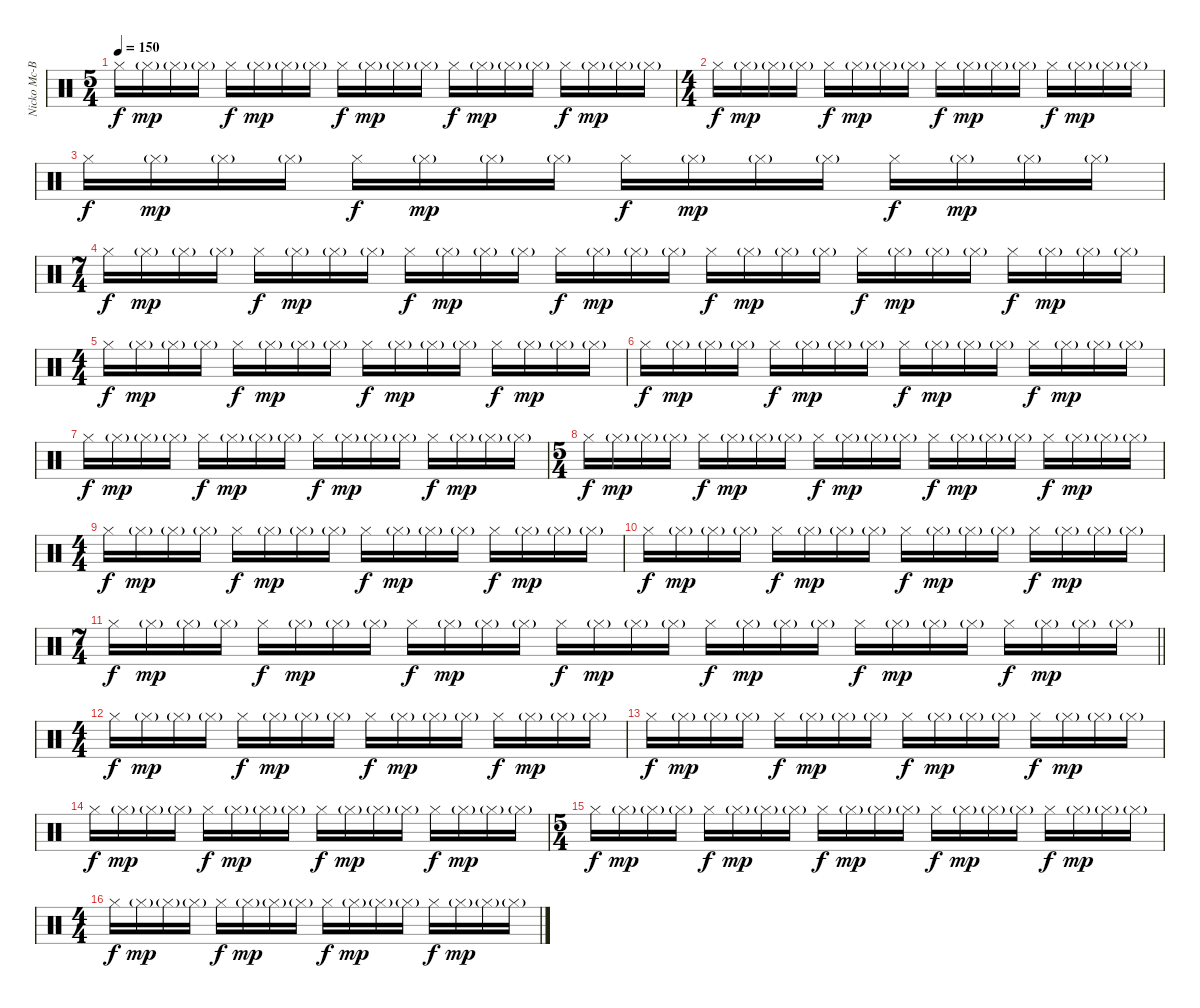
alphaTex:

\track ("Nicko Mc-Brain" "Nicko Mc-B") {instrument percussion}
\staff {score}
\articulation defaults
\ts (5 4)
\tempo 150
\clef neutral
\ks c "Hi-Hat (closed)".16{dy f} "Hi-Hat (closed)"{g}.16{dy mp} "Hi-Hat (closed)"{g}.16 "Hi-Hat (closed)"{g}.16 "Hi-Hat (closed)".16{dy f} "Hi-Hat (closed)"{g}.16{dy mp} "Hi-Hat (closed)"{g}.16 "Hi-Hat (closed)"{g}.16 "Hi-Hat (closed)".16{dy f} "Hi-Hat (closed)"{g}.16{dy mp} "Hi-Hat (closed)"{g}.16 "Hi-Hat (closed)"{g}.16 "Hi-Hat (closed)".16{dy f} "Hi-Hat (closed)"{g}.16{dy mp} "Hi-Hat (closed)"{g}.16 "Hi-Hat (closed)"{g}.16 "Hi-Hat (closed)".16{dy f} "Hi-Hat (closed)"{g}.16{dy mp} "Hi-Hat (closed)"{g}.16 "Hi-Hat (closed)"{g}.16
|
\ts (4 4)
"Hi-Hat (closed)".16{dy f} "Hi-Hat (closed)"{g}.16{dy mp} "Hi-Hat (closed)"{g}.16 "Hi-Hat (closed)"{g}.16 "Hi-Hat (closed)".16{dy f} "Hi-Hat (closed)"{g}.16{dy mp} "Hi-Hat (closed)"{g}.16 "Hi-Hat (closed)"{g}.16 "Hi-Hat (closed)".16{dy f} "Hi-Hat (closed)"{g}.16{dy mp} "Hi-Hat (closed)"{g}.16 "Hi-Hat (closed)"{g}.16 "Hi-Hat (closed)".16{dy f} "Hi-Hat (closed)"{g}.16{dy mp} "Hi-Hat (closed)"{g}.16 "Hi-Hat (closed)"{g}.16 |
"Hi-Hat (closed)".16{dy f} "Hi-Hat (closed)"{g}.16{dy mp} "Hi-Hat (closed)"{g}.16 "Hi-Hat (closed)"{g}.16 "Hi-Hat (closed)".16{dy f} "Hi-Hat (closed)"{g}.16{dy mp} "Hi-Hat (closed)"{g}.16 "Hi-Hat (closed)"{g}.16 "Hi-Hat (closed)".16{dy f} "Hi-Hat (closed)"{g}.16{dy mp} "Hi-Hat (closed)"{g}.16 "Hi-Hat (closed)"{g}.16 "Hi-Hat (closed)".16{dy f} "Hi-Hat (closed)"{g}.16{dy mp} "Hi-Hat (closed)"{g}.16 "Hi-Hat (closed)"{g}.16 |
\ts (7 4)
"Hi-Hat (closed)".16{dy f} "Hi-Hat (closed)"{g}.16{dy mp} "Hi-Hat (closed)"{g}.16 "Hi-Hat (closed)"{g}.16 "Hi-Hat (closed)".16{dy f} "Hi-Hat (closed)"{g}.16{dy mp} "Hi-Hat (closed)"{g}.16 "Hi-Hat (closed)"{g}.16 "Hi-Hat (closed)".16{dy f} "Hi-Hat (closed)"{g}.16{dy mp} "Hi-Hat (closed)"{g}.16 "Hi-Hat (closed)"{g}.16 "Hi-Hat (closed)".16{dy f} "Hi-Hat (closed)"{g}.16{dy mp} "Hi-Hat (closed)"{g}.16 "Hi-Hat (closed)"{g}.16 "Hi-Hat (closed)".16{dy f} "Hi-Hat (closed)"{g}.16{dy mp} "Hi-Hat (closed)"{g}.16 "Hi-Hat (closed)"{g}.16 "Hi-Hat (closed)".16{dy f} "Hi-Hat (closed)"{g}.16{dy mp} "Hi-Hat (closed)"{g}.16 "Hi-Hat (closed)"{g}.16 "Hi-Hat (closed)".16{dy f} "Hi-Hat (closed)"{g}.16{dy mp} "Hi-Hat (closed)"{g}.16 "Hi-Hat (closed)"{g}.16 |
\ts (4 4)
"Hi-Hat (closed)".16{dy f} "Hi-Hat (closed)"{g}.16{dy mp} "Hi-Hat (closed)"{g}.16 "Hi-Hat (closed)"{g}.16 "Hi-Hat (closed)".16{dy f} "Hi-Hat (closed)"{g}.16{dy mp} "Hi-Hat (closed)"{g}.16 "Hi-Hat (closed)"{g}.16 "Hi-Hat (closed)".16{dy f} "Hi-Hat (closed)"{g}.16{dy mp} "Hi-Hat (closed)"{g}.16 "Hi-Hat (closed)"{g}.16 "Hi-Hat (closed)".16{dy f} "Hi-Hat (closed)"{g}.16{dy mp} "Hi-Hat (closed)"{g}.16 "Hi-Hat (closed)"{g}.16 |
"Hi-Hat (closed)".16{dy f} "Hi-Hat (closed)"{g}.16{dy mp} "Hi-Hat (closed)"{g}.16 "Hi-Hat (closed)"{g}.16 "Hi-Hat (closed)".16{dy f} "Hi-Hat (closed)"{g}.16{dy mp} "Hi-Hat (closed)"{g}.16 "Hi-Hat (closed)"{g}.16 "Hi-Hat (closed)".16{dy f} "Hi-Hat (closed)"{g}.16{dy mp} "Hi-Hat (closed)"{g}.16 "Hi-Hat (closed)"{g}.16 "Hi-Hat (closed)".16{dy f} "Hi-Hat (closed)"{g}.16{dy mp} "Hi-Hat (closed)"{g}.16 "Hi-Hat (closed)"{g}.16 |
"Hi-Hat (closed)".16{dy f} "Hi-Hat (closed)"{g}.16{dy mp} "Hi-Hat (closed)"{g}.16 "Hi-Hat (closed)"{g}.16 "Hi-Hat (closed)".16{dy f} "Hi-Hat (closed)"{g}.16{dy mp} "Hi-Hat (closed)"{g}.16 "Hi-Hat (closed)"{g}.16 "Hi-Hat (closed)".16{dy f} "Hi-Hat (closed)"{g}.16{dy mp} "Hi-Hat (closed)"{g}.16 "Hi-Hat (closed)"{g}.16 "Hi-Hat (closed)".16{dy f} "Hi-Hat (closed)"{g}.16{dy mp} "Hi-Hat (closed)"{g}.16 "Hi-Hat (closed)"{g}.16 |
\ts (5 4)
"Hi-Hat (closed)".16{dy f} "Hi-Hat (closed)"{g}.16{dy mp} "Hi-Hat (closed)"{g}.16 "Hi-Hat (closed)"{g}.16 "Hi-Hat (closed)".16{dy f} "Hi-Hat (closed)"{g}.16{dy mp} "Hi-Hat (closed)"{g}.16 "Hi-Hat (closed)"{g}.16 "Hi-Hat (closed)".16{dy f} "Hi-Hat (closed)"{g}.16{dy mp} "Hi-Hat (closed)"{g}.16 "Hi-Hat (closed)"{g}.16 "Hi-Hat (closed)".16{dy f} "Hi-Hat (closed)"{g}.16{dy mp} "Hi-Hat (closed)"{g}.16 "Hi-Hat (closed)"{g}.16 "Hi-Hat (closed)".16{dy f} "Hi-Hat (closed)"{g}.16{dy mp} "Hi-Hat (closed)"{g}.16 "Hi-Hat (closed)"{g}.16 |
\ts (4 4)
"Hi-Hat (closed)".16{dy f} "Hi-Hat (closed)"{g}.16{dy mp} "Hi-Hat (closed)"{g}.16 "Hi-Hat (closed)"{g}.16 "Hi-Hat (closed)".16{dy f} "Hi-Hat (closed)"{g}.16{dy mp} "Hi-Hat (closed)"{g}.16 "Hi-Hat (closed)"{g}.16 "Hi-Hat (closed)".16{dy f} "Hi-Hat (closed)"{g}.16{dy mp} "Hi-Hat (closed)"{g}.16 "Hi-Hat (closed)"{g}.16 "Hi-Hat (closed)".16{dy f} "Hi-Hat (closed)"{g}.16{dy mp} "Hi-Hat (closed)"{g}.16 "Hi-Hat (closed)"{g}.16 |
"Hi-Hat (closed)".16{dy f} "Hi-Hat (closed)"{g}.16{dy mp} "Hi-Hat (closed)"{g}.16 "Hi-Hat (closed)"{g}.16 "Hi-Hat (closed)".16{dy f} "Hi-Hat (closed)"{g}.16{dy mp} "Hi-Hat (closed)"{g}.16 "Hi-Hat (closed)"{g}.16 "Hi-Hat (closed)".16{dy f} "Hi-Hat (closed)"{g}.16{dy mp} "Hi-Hat (closed)"{g}.16 "Hi-Hat (closed)"{g}.16 "Hi-Hat (closed)".16{dy f} "Hi-Hat (closed)"{g}.16{dy mp} "Hi-Hat (closed)"{g}.16 "Hi-Hat (closed)"{g}.16 |
\ts (7 4)
\barLineRight lightlight "Hi-Hat (closed)".16{dy f} "Hi-Hat (closed)"{g}.16{dy mp} "Hi-Hat (closed)"{g}.16 "Hi-Hat (closed)"{g}.16 "Hi-Hat (closed)".16{dy f} "Hi-Hat (closed)"{g}.16{dy mp} "Hi-Hat (closed)"{g}.16 "Hi-Hat (closed)"{g}.16 "Hi-Hat (closed)".16{dy f} "Hi-Hat (closed)"{g}.16{dy mp} "Hi-Hat (closed)"{g}.16 "Hi-Hat (closed)"{g}.16 "Hi-Hat (closed)".16{dy f} "Hi-Hat (closed)"{g}.16{dy mp} "Hi-Hat (closed)"{g}.16 "Hi-Hat (closed)"{g}.16 "Hi-Hat (closed)".16{dy f} "Hi-Hat (closed)"{g}.16{dy mp} "Hi-Hat (closed)"{g}.16 "Hi-Hat (closed)"{g}.16 "Hi-Hat (closed)".16{dy f} "Hi-Hat (closed)"{g}.16{dy mp} "Hi-Hat (closed)"{g}.16 "Hi-Hat (closed)"{g}.16 "Hi-Hat (closed)".16{dy f} "Hi-Hat (closed)"{g}.16{dy mp} "Hi-Hat (closed)"{g}.16 "Hi-Hat (closed)"{g}.16
|
\ts (4 4)
"Hi-Hat (closed)".16{dy f} "Hi-Hat (closed)"{g}.16{dy mp} "Hi-Hat (closed)"{g}.16 "Hi-Hat (closed)"{g}.16 "Hi-Hat (closed)".16{dy f} "Hi-Hat (closed)"{g}.16{dy mp} "Hi-Hat (closed)"{g}.16 "Hi-Hat (closed)"{g}.16 "Hi-Hat (closed)".16{dy f} "Hi-Hat (closed)"{g}.16{dy mp} "Hi-Hat (closed)"{g}.16 "Hi-Hat (closed)"{g}.16 "Hi-Hat (closed)".16{dy f} "Hi-Hat (closed)"{g}.16{dy mp} "Hi-Hat (closed)"{g}.16 "Hi-Hat (closed)"{g}.16 |
"Hi-Hat (closed)".16{dy f} "Hi-Hat (closed)"{g}.16{dy mp} "Hi-Hat (closed)"{g}.16 "Hi-Hat (closed)"{g}.16 "Hi-Hat (closed)".16{dy f} "Hi-Hat (closed)"{g}.16{dy mp} "Hi-Hat (closed)"{g}.16 "Hi-Hat (closed)"{g}.16 "Hi-Hat (closed)".16{dy f} "Hi-Hat (closed)"{g}.16{dy mp} "Hi-Hat (closed)"{g}.16 "Hi-Hat (closed)"{g}.16 "Hi-Hat (closed)".16{dy f} "Hi-Hat (closed)"{g}.16{dy mp} "Hi-Hat (closed)"{g}.16 "Hi-Hat (closed)"{g}.16 |
"Hi-Hat (closed)".16{dy f} "Hi-Hat (closed)"{g}.16{dy mp} "Hi-Hat (closed)"{g}.16 "Hi-Hat (closed)"{g}.16 "Hi-Hat (closed)".16{dy f} "Hi-Hat (closed)"{g}.16{dy mp} "Hi-Hat (closed)"{g}.16 "Hi-Hat (closed)"{g}.16 "Hi-Hat (closed)".16{dy f} "Hi-Hat (closed)"{g}.16{dy mp} "Hi-Hat (closed)"{g}.16 "Hi-Hat (closed)"{g}.16 "Hi-Hat (closed)".16{dy f} "Hi-Hat (closed)"{g}.16{dy mp} "Hi-Hat (closed)"{g}.16 "Hi-Hat (closed)"{g}.16 |
\ts (5 4)
"Hi-Hat (closed)".16{dy f} "Hi-Hat (closed)"{g}.16{dy mp} "Hi-Hat (closed)"{g}.16 "Hi-Hat (closed)"{g}.16 "Hi-Hat (closed)".16{dy f} "Hi-Hat (closed)"{g}.16{dy mp} "Hi-Hat (closed)"{g}.16 "Hi-Hat (closed)"{g}.16 "Hi-Hat (closed)".16{dy f} "Hi-Hat (closed)"{g}.16{dy mp} "Hi-Hat (closed)"{g}.16 "Hi-Hat (closed)"{g}.16 "Hi-Hat (closed)".16{dy f} "Hi-Hat (closed)"{g}.16{dy mp} "Hi-Hat (closed)"{g}.16 "Hi-Hat (closed)"{g}.16 "Hi-Hat (closed)".16{dy f} "Hi-Hat (closed)"{g}.16{dy mp} "Hi-Hat (closed)"{g}.16 "Hi-Hat (closed)"{g}.16 |
\ts (4 4)
"Hi-Hat (closed)".16{dy f} "Hi-Hat (closed)"{g}.16{dy mp} "Hi-Hat (closed)"{g}.16 "Hi-Hat (closed)"{g}.16 "Hi-Hat (closed)".16{dy f} "Hi-Hat (closed)"{g}.16{dy mp} "Hi-Hat (closed)"{g}.16 "Hi-Hat (closed)"{g}.16 "Hi-Hat (closed)".16{dy f} "Hi-Hat (closed)"{g}.16{dy mp} "Hi-Hat (closed)"{g}.16 "Hi-Hat (closed)"{g}.16 "Hi-Hat (closed)".16{dy f} "Hi-Hat (closed)"{g}.16{dy mp} "Hi-Hat (closed)"{g}.16 "Hi-Hat (closed)"{g}.16
